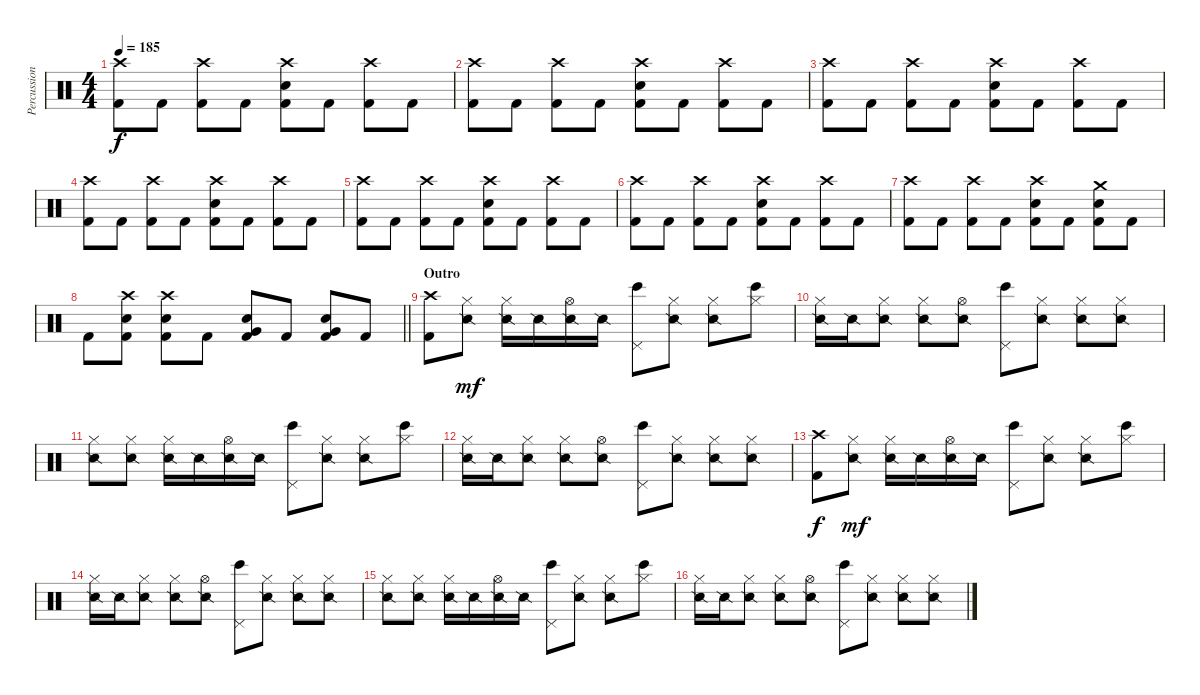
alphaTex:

\track ("Percussion" "Percussion") {instrument percussion}
\staff {score}
\articulation defaults
\ts (4 4)
\tempo 185
\clef neutral
\ks c
("Crash high (hit)" "Kick (hit) 2").8{dy f} "Kick (hit) 2".8 ("Crash high (hit)" "Kick (hit) 2").8 "Kick (hit) 2".8 ("Crash high (hit)" "Snare (hit) 2" "Kick (hit) 2").8 "Kick (hit) 2".8 ("Crash high (hit)" "Kick (hit) 2").8 "Kick (hit) 2".8 |
("Crash high (hit)" "Kick (hit) 2").8 "Kick (hit) 2".8 ("Crash high (hit)" "Kick (hit) 2").8 "Kick (hit) 2".8 ("Crash high (hit)" "Snare (hit) 2" "Kick (hit) 2").8 "Kick (hit) 2".8 ("Crash high (hit)" "Kick (hit) 2").8 "Kick (hit) 2".8 |
("Crash high (hit)" "Kick (hit) 2").8 "Kick (hit) 2".8 ("Crash high (hit)" "Kick (hit) 2").8 "Kick (hit) 2".8 ("Crash high (hit)" "Snare (hit) 2" "Kick (hit) 2").8 "Kick (hit) 2".8 ("Crash high (hit)" "Kick (hit) 2").8 "Kick (hit) 2".8 |
("Crash high (hit)" "Kick (hit) 2").8 "Kick (hit) 2".8 ("Crash high (hit)" "Kick (hit) 2").8 "Kick (hit) 2".8 ("Crash high (hit)" "Snare (hit) 2" "Kick (hit) 2").8 "Kick (hit) 2".8 ("Crash high (hit)" "Kick (hit) 2").8 "Kick (hit) 2".8 |
("Crash high (hit)" "Kick (hit) 2").8 "Kick (hit) 2".8 ("Crash high (hit)" "Kick (hit) 2").8 "Kick (hit) 2".8 ("Crash high (hit)" "Snare (hit) 2" "Kick (hit) 2").8 "Kick (hit) 2".8 ("Crash high (hit)" "Kick (hit) 2").8 "Kick (hit) 2".8 |
("Crash high (hit)" "Kick (hit) 2").8 "Kick (hit) 2".8 ("Crash high (hit)" "Kick (hit) 2").8 "Kick (hit) 2".8 ("Crash high (hit)" "Snare (hit) 2" "Kick (hit) 2").8 "Kick (hit) 2".8 ("Crash high (hit)" "Kick (hit) 2").8 "Kick (hit) 2".8 |
("Crash high (hit)" "Kick (hit) 2").8 "Kick (hit) 2".8 ("Crash high (hit)" "Kick (hit) 2").8 "Kick (hit) 2".8 ("Crash high (hit)" "Snare (hit) 2" "Kick (hit) 2").8 "Kick (hit) 2".8 ("Crash medium (hit)" "Snare (hit) 2" "Kick (hit) 2").8 "Kick (hit) 2".8 |
\barLineRight lightlight "Kick (hit) 2".8
("Crash high (hit)" "Snare (hit) 2" "Kick (hit) 2").8 ("Crash high (hit)" "Snare (hit) 2" "Kick (hit) 2").8 "Kick (hit) 2".8 ("Snare (hit) 2" "Very Low Tom (hit)" "Kick (hit) 2").8 "Kick (hit) 2".8 ("Snare (hit) 2" "Very Low Tom (hit)" "Kick (hit) 2").8 "Kick (hit) 2".8 |
\section ("" "Outro")
("Crash high (hit)" "Kick (hit) 2").8 ("Hi-Hat (closed)" "Snare (side stick) 2").8{dy mf} ("Hi-Hat (closed)" "Snare (side stick) 2").16 "Snare (side stick) 2".16 ("Hi-Hat (open)" "Snare (side stick) 2").16 "Snare (side stick) 2".16 ("Pedal Hi-Hat (hit)" "Bongo High (hit)").8 ("Hi-Hat (closed)" "Snare (side stick) 2").8 ("Hi-Hat (closed)" "Snare (side stick) 2").8 ("Hi-Hat (closed)" "Bongo High (hit)").8 |
("Hi-Hat (closed)" "Snare (side stick) 2").16 "Snare (side stick) 2".16 ("Hi-Hat (closed)" "Snare (side stick) 2").8 ("Hi-Hat (closed)" "Snare (side stick) 2").8 ("Hi-Hat (open)" "Snare (side stick) 2").8 ("Pedal Hi-Hat (hit)" "Bongo High (hit)").8 ("Hi-Hat (closed)" "Snare (side stick) 2").8 ("Hi-Hat (closed)" "Snare (side stick) 2").8 ("Hi-Hat (closed)" "Snare (side stick) 2").8 |
("Hi-Hat (closed)" "Snare (side stick) 2").8 ("Hi-Hat (closed)" "Snare (side stick) 2").8 ("Hi-Hat (closed)" "Snare (side stick) 2").16 "Snare (side stick) 2".16 ("Hi-Hat (open)" "Snare (side stick) 2").16 "Snare (side stick) 2".16 ("Pedal Hi-Hat (hit)" "Bongo High (hit)").8 ("Hi-Hat (closed)" "Snare (side stick) 2").8 ("Hi-Hat (closed)" "Snare (side stick) 2").8 ("Hi-Hat (closed)" "Bongo High (hit)").8 |
("Hi-Hat (closed)" "Snare (side stick) 2").16 "Snare (side stick) 2".16 ("Hi-Hat (closed)" "Snare (side stick) 2").8 ("Hi-Hat (closed)" "Snare (side stick) 2").8 ("Hi-Hat (open)" "Snare (side stick) 2").8 ("Pedal Hi-Hat (hit)" "Bongo High (hit)").8 ("Hi-Hat (closed)" "Snare (side stick) 2").8 ("Hi-Hat (closed)" "Snare (side stick) 2").8 ("Hi-Hat (closed)" "Snare (side stick) 2").8 |
("Crash high (hit)" "Kick (hit) 2").8{dy f} ("Hi-Hat (closed)" "Snare (side stick) 2").8{dy mf} ("Hi-Hat (closed)" "Snare (side stick) 2").16 "Snare (side stick) 2".16 ("Hi-Hat (open)" "Snare (side stick) 2").16 "Snare (side stick) 2".16 ("Pedal Hi-Hat (hit)" "Bongo High (hit)").8 ("Hi-Hat (closed)" "Snare (side stick) 2").8 ("Hi-Hat (closed)" "Snare (side stick) 2").8 ("Hi-Hat (closed)" "Bongo High (hit)").8 |
("Hi-Hat (closed)" "Snare (side stick) 2").16 "Snare (side stick) 2".16 ("Hi-Hat (closed)" "Snare (side stick) 2").8 ("Hi-Hat (closed)" "Snare (side stick) 2").8 ("Hi-Hat (open)" "Snare (side stick) 2").8 ("Pedal Hi-Hat (hit)" "Bongo High (hit)").8 ("Hi-Hat (closed)" "Snare (side stick) 2").8 ("Hi-Hat (closed)" "Snare (side stick) 2").8 ("Hi-Hat (closed)" "Snare (side stick) 2").8 |
("Hi-Hat (closed)" "Snare (side stick) 2").8 ("Hi-Hat (closed)" "Snare (side stick) 2").8 ("Hi-Hat (closed)" "Snare (side stick) 2").16 "Snare (side stick) 2".16 ("Hi-Hat (open)" "Snare (side stick) 2").16 "Snare (side stick) 2".16 ("Pedal Hi-Hat (hit)" "Bongo High (hit)").8 ("Hi-Hat (closed)" "Snare (side stick) 2").8 ("Hi-Hat (closed)" "Snare (side stick) 2").8 ("Hi-Hat (closed)" "Bongo High (hit)").8 |
("Hi-Hat (closed)" "Snare (side stick) 2").16 "Snare (side stick) 2".16 ("Hi-Hat (closed)" "Snare (side stick) 2").8 ("Hi-Hat (closed)" "Snare (side stick) 2").8 ("Hi-Hat (open)" "Snare (side stick) 2").8 ("Pedal Hi-Hat (hit)" "Bongo High (hit)").8 ("Hi-Hat (closed)" "Snare (side stick) 2").8 ("Hi-Hat (closed)" "Snare (side stick) 2").8 ("Hi-Hat (closed)" "Snare (side stick) 2").8
